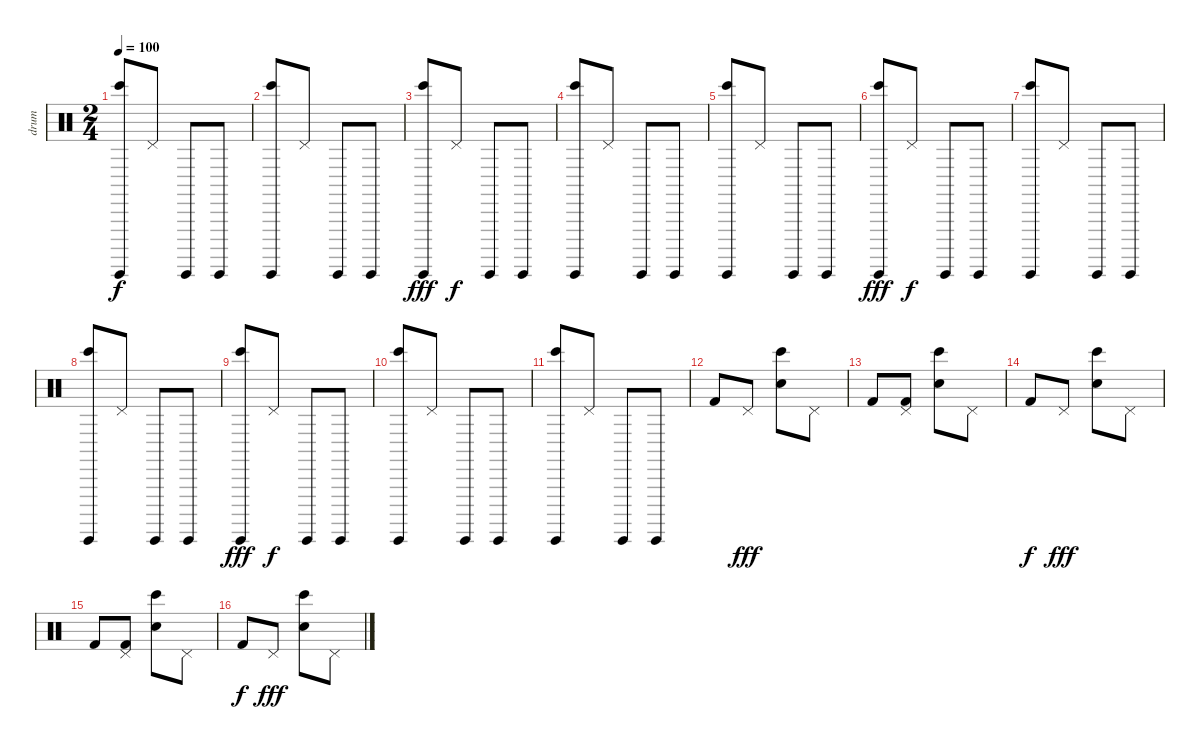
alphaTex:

\track ("drum" "drum") {instrument percussion}
\staff {score}
\articulation defaults
\ts (2 4)
\tempo 100
\clef neutral
\ks c
("Guiro (hit)" "Bongo High (hit)").8{dy f} "Pedal Hi-Hat (hit)".8 "Guiro (hit)".8 "Guiro (hit)".8 |
("Guiro (hit)" "Bongo High (hit)").8 "Pedal Hi-Hat (hit)".8 "Guiro (hit)".8 "Guiro (hit)".8 |
("Guiro (hit)" "Bongo High (hit)").8{dy fff} "Pedal Hi-Hat (hit)".8{dy f} "Guiro (hit)".8 "Guiro (hit)".8 |
("Guiro (hit)" "Bongo High (hit)").8 "Pedal Hi-Hat (hit)".8 "Guiro (hit)".8 "Guiro (hit)".8 |
("Guiro (hit)" "Bongo High (hit)").8 "Pedal Hi-Hat (hit)".8 "Guiro (hit)".8 "Guiro (hit)".8 |
("Guiro (hit)" "Bongo High (hit)").8{dy fff} "Pedal Hi-Hat (hit)".8{dy f} "Guiro (hit)".8 "Guiro (hit)".8 |
("Guiro (hit)" "Bongo High (hit)").8 "Pedal Hi-Hat (hit)".8 "Guiro (hit)".8 "Guiro (hit)".8 |
("Guiro (hit)" "Bongo High (hit)").8 "Pedal Hi-Hat (hit)".8 "Guiro (hit)".8 "Guiro (hit)".8 |
("Guiro (hit)" "Bongo High (hit)").8{dy fff} "Pedal Hi-Hat (hit)".8{dy f} "Guiro (hit)".8 "Guiro (hit)".8 |
("Guiro (hit)" "Bongo High (hit)").8 "Pedal Hi-Hat (hit)".8 "Guiro (hit)".8 "Guiro (hit)".8 |
("Guiro (hit)" "Bongo High (hit)").8 "Pedal Hi-Hat (hit)".8 "Guiro (hit)".8 "Guiro (hit)".8 |
"Kick (hit) 2".8 "Pedal Hi-Hat (hit)".8{dy fff} ("Electric Snare (hit)" "Bongo High (hit)").8 "Pedal Hi-Hat (hit)".8 |
"Kick (hit) 2".8 ("Pedal Hi-Hat (hit)" "Kick (hit) 2").8 ("Electric Snare (hit)" "Bongo High (hit)").8 "Pedal Hi-Hat (hit)".8 |
"Kick (hit) 2".8{dy f} "Pedal Hi-Hat (hit)".8{dy fff} ("Electric Snare (hit)" "Bongo High (hit)").8 "Pedal Hi-Hat (hit)".8 |
"Kick (hit) 2".8 ("Pedal Hi-Hat (hit)" "Kick (hit) 2").8 ("Electric Snare (hit)" "Bongo High (hit)").8 "Pedal Hi-Hat (hit)".8 |
"Kick (hit) 2".8{dy f} "Pedal Hi-Hat (hit)".8{dy fff} ("Electric Snare (hit)" "Bongo High (hit)").8 "Pedal Hi-Hat (hit)".8
